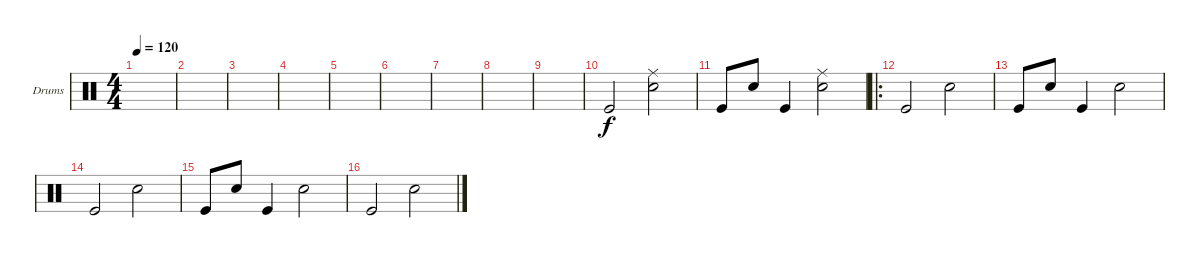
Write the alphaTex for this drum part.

\defaultSystemsLayout 4
\bracketExtendMode groupsimilarinstruments
\firstSystemTrackNameOrientation horizontal
\otherSystemsTrackNameOrientation horizontal
\track ("Drumkit" "Drums") {instrument percussion}
\staff {score}
\articulation defaults
\ts (4 4)
\tempo 120
\clef neutral
\scale
0.472222
\ks c
|
\scale
0.263889 |
\scale
0.263889 |
\scale
0.333333 |
\scale
0.333333 |
\scale
0.333333 |
\scale
0.333333 |
\scale
0.333333 |
\scale
0.333333 |
\scale
0.311475 "Kick (hit)".2 ("Ride (middle)" "Snare (hit) 2").2 |
\scale
0.311475 "Kick (hit)".8 "Snare (hit) 2".8 "Kick (hit)".4 ("Snare (hit) 2" "Ride (middle)").2 |
\ro
\scale
0.377049 "Kick (hit)".2 "Snare (hit) 2".2 |
\scale
0.333333 "Kick (hit)".8 "Snare (hit) 2".8 "Kick (hit)".4 "Snare (hit) 2".2 |
\scale
0.333333 "Kick (hit)".2 "Snare (hit) 2".2 |
\scale
0.333333 "Kick (hit)".8 "Snare (hit) 2".8 "Kick (hit)".4 "Snare (hit) 2".2 |
\scale
0.333333 "Kick (hit)".2 "Snare (hit) 2".2
